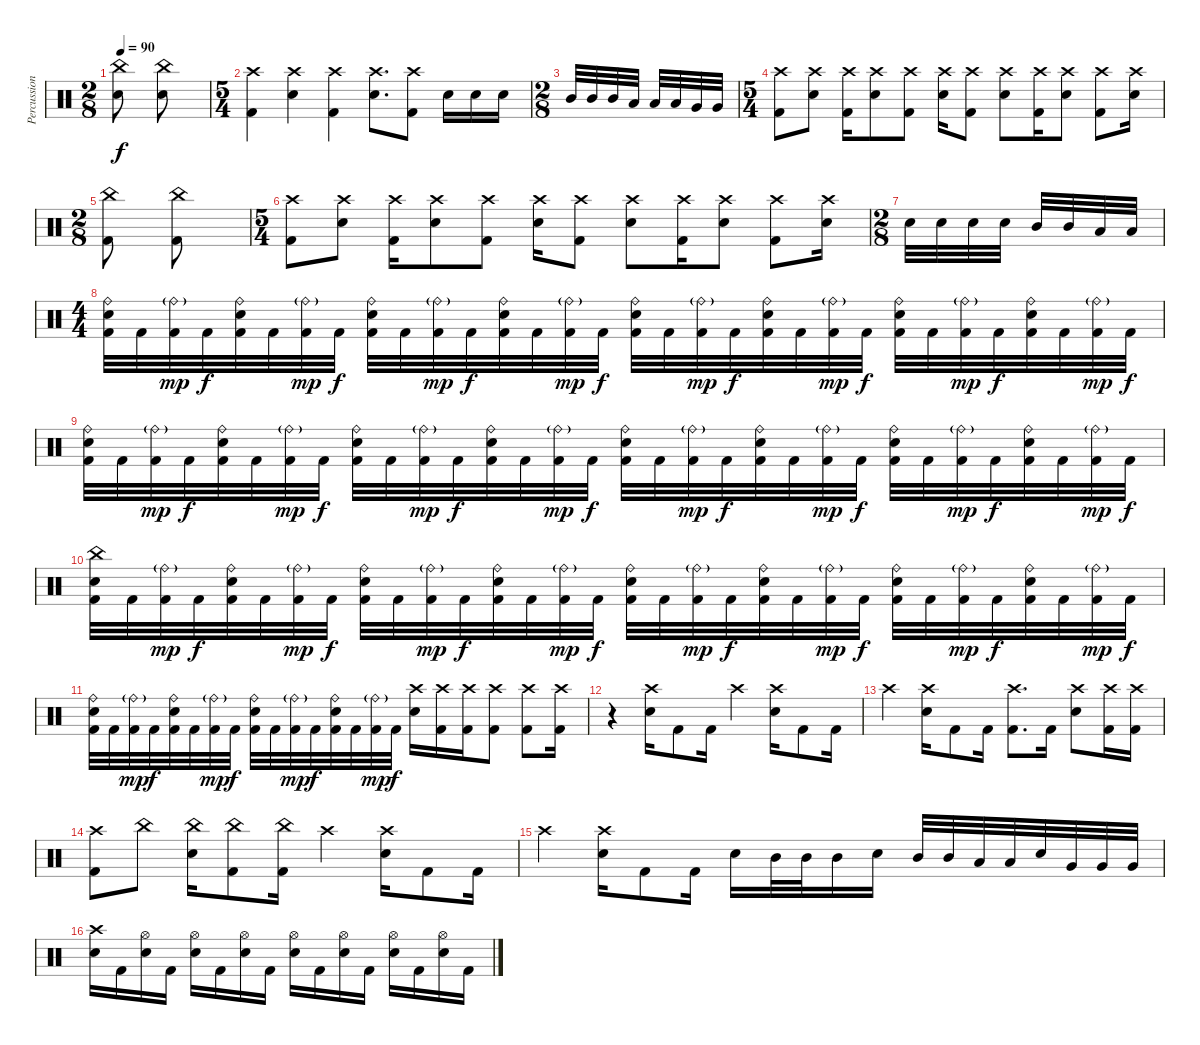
\track ("Percussion" "Percussion") {instrument percussion}
\staff {score}
\articulation defaults
\ts (2 8)
\tempo 90
\clef neutral
\ks c
("China (hit)" "Snare (hit) 2").8{dy f} ("China (hit)" "Snare (hit) 2").8 |
\ts (5 4)
("Crash high (hit)" "Kick (hit) 2").4 ("Crash high (hit)" "Snare (hit) 2").4 ("Crash high (hit)" "Kick (hit) 2").4 ("Crash high (hit)" "Snare (hit) 2").8{d} ("Crash high (hit)" "Kick (hit) 2").8 "Snare (hit) 2".16 "Snare (hit) 2".16 "Snare (hit) 2".16 |
\ts (2 8)
"Mid Tom (hit)".32 "Mid Tom (hit)".32 "Mid Tom (hit)".32 "Low Tom (hit)".32 "Low Tom (hit)".32 "Low Tom (hit)".32 "Very Low Tom (hit)".32 "Very Low Tom (hit)".32 |
\ts (5 4)
("Crash high (hit)" "Kick (hit) 2").8 ("Crash high (hit)" "Snare (hit) 2").8 ("Crash high (hit)" "Kick (hit) 2").16 ("Crash high (hit)" "Snare (hit) 2").8 ("Crash high (hit)" "Kick (hit) 2").8 ("Crash high (hit)" "Snare (hit) 2").16 ("Crash high (hit)" "Kick (hit) 2").8 ("Crash high (hit)" "Snare (hit) 2").8 ("Crash high (hit)" "Kick (hit) 2").16 ("Crash high (hit)" "Snare (hit) 2").8 ("Crash high (hit)" "Kick (hit) 2").8 ("Crash high (hit)" "Snare (hit) 2").16 |
\ts (2 8)
("China (hit)" "Kick (hit) 2").8 ("China (hit)" "Kick (hit) 2").8 |
\ts (5 4)
("Crash high (hit)" "Kick (hit) 2").8 ("Crash high (hit)" "Snare (hit) 2").8 ("Crash high (hit)" "Kick (hit) 2").16 ("Crash high (hit)" "Snare (hit) 2").8 ("Crash high (hit)" "Kick (hit) 2").8 ("Crash high (hit)" "Snare (hit) 2").16 ("Crash high (hit)" "Kick (hit) 2").8 ("Crash high (hit)" "Snare (hit) 2").8 ("Crash high (hit)" "Kick (hit) 2").16 ("Crash high (hit)" "Snare (hit) 2").8 ("Crash high (hit)" "Kick (hit) 2").8 ("Crash high (hit)" "Snare (hit) 2").16 |
\ts (2 8)
"Snare (hit) 2".32 "Snare (hit) 2".32 "Snare (hit) 2".32 "Snare (hit) 2".32 "Mid Tom (hit)".32 "Mid Tom (hit)".32 "Low Tom (hit)".32 "Low Tom (hit)".32 |
\ts (4 4)
("Ride (bell)" "Snare (hit) 2" "Kick (hit) 2").32 "Kick (hit) 2".32 ("Ride (bell)"{g} "Kick (hit) 2").32{dy mp} "Kick (hit) 2".32{dy f} ("Ride (bell)" "Snare (hit) 2" "Kick (hit) 2").32 "Kick (hit) 2".32 ("Ride (bell)"{g} "Kick (hit) 2").32{dy mp} "Kick (hit) 2".32{dy f} ("Ride (bell)" "Snare (hit) 2" "Kick (hit) 2").32 "Kick (hit) 2".32 ("Ride (bell)"{g} "Kick (hit) 2").32{dy mp} "Kick (hit) 2".32{dy f} ("Ride (bell)" "Snare (hit) 2" "Kick (hit) 2").32 "Kick (hit) 2".32 ("Ride (bell)"{g} "Kick (hit) 2").32{dy mp} "Kick (hit) 2".32{dy f} ("Ride (bell)" "Snare (hit) 2" "Kick (hit) 2").32 "Kick (hit) 2".32 ("Ride (bell)"{g} "Kick (hit) 2").32{dy mp} "Kick (hit) 2".32{dy f} ("Ride (bell)" "Snare (hit) 2" "Kick (hit) 2").32 "Kick (hit) 2".32 ("Ride (bell)"{g} "Kick (hit) 2").32{dy mp} "Kick (hit) 2".32{dy f} ("Ride (bell)" "Snare (hit) 2" "Kick (hit) 2").32 "Kick (hit) 2".32 ("Ride (bell)"{g} "Kick (hit) 2").32{dy mp} "Kick (hit) 2".32{dy f} ("Ride (bell)" "Snare (hit) 2" "Kick (hit) 2").32 "Kick (hit) 2".32 ("Ride (bell)"{g} "Kick (hit) 2").32{dy mp} "Kick (hit) 2".32{dy f} |
("Ride (bell)" "Snare (hit) 2" "Kick (hit) 2").32 "Kick (hit) 2".32 ("Ride (bell)"{g} "Kick (hit) 2").32{dy mp} "Kick (hit) 2".32{dy f} ("Ride (bell)" "Snare (hit) 2" "Kick (hit) 2").32 "Kick (hit) 2".32 ("Ride (bell)"{g} "Kick (hit) 2").32{dy mp} "Kick (hit) 2".32{dy f} ("Ride (bell)" "Snare (hit) 2" "Kick (hit) 2").32 "Kick (hit) 2".32 ("Ride (bell)"{g} "Kick (hit) 2").32{dy mp} "Kick (hit) 2".32{dy f} ("Ride (bell)" "Snare (hit) 2" "Kick (hit) 2").32 "Kick (hit) 2".32 ("Ride (bell)"{g} "Kick (hit) 2").32{dy mp} "Kick (hit) 2".32{dy f} ("Ride (bell)" "Snare (hit) 2" "Kick (hit) 2").32 "Kick (hit) 2".32 ("Ride (bell)"{g} "Kick (hit) 2").32{dy mp} "Kick (hit) 2".32{dy f} ("Ride (bell)" "Snare (hit) 2" "Kick (hit) 2").32 "Kick (hit) 2".32 ("Ride (bell)"{g} "Kick (hit) 2").32{dy mp} "Kick (hit) 2".32{dy f} ("Ride (bell)" "Snare (hit) 2" "Kick (hit) 2").32 "Kick (hit) 2".32 ("Ride (bell)"{g} "Kick (hit) 2").32{dy mp} "Kick (hit) 2".32{dy f} ("Ride (bell)" "Snare (hit) 2" "Kick (hit) 2").32 "Kick (hit) 2".32 ("Ride (bell)"{g} "Kick (hit) 2").32{dy mp} "Kick (hit) 2".32{dy f} |
("China (hit)" "Snare (hit) 2" "Kick (hit) 2").32 "Kick (hit) 2".32 ("Ride (bell)"{g} "Kick (hit) 2").32{dy mp} "Kick (hit) 2".32{dy f} ("Ride (bell)" "Snare (hit) 2" "Kick (hit) 2").32 "Kick (hit) 2".32 ("Ride (bell)"{g} "Kick (hit) 2").32{dy mp} "Kick (hit) 2".32{dy f} ("Ride (bell)" "Snare (hit) 2" "Kick (hit) 2").32 "Kick (hit) 2".32 ("Ride (bell)"{g} "Kick (hit) 2").32{dy mp} "Kick (hit) 2".32{dy f} ("Ride (bell)" "Snare (hit) 2" "Kick (hit) 2").32 "Kick (hit) 2".32 ("Ride (bell)"{g} "Kick (hit) 2").32{dy mp} "Kick (hit) 2".32{dy f} ("Ride (bell)" "Snare (hit) 2" "Kick (hit) 2").32 "Kick (hit) 2".32 ("Ride (bell)"{g} "Kick (hit) 2").32{dy mp} "Kick (hit) 2".32{dy f} ("Ride (bell)" "Snare (hit) 2" "Kick (hit) 2").32 "Kick (hit) 2".32 ("Ride (bell)"{g} "Kick (hit) 2").32{dy mp} "Kick (hit) 2".32{dy f} ("Ride (bell)" "Snare (hit) 2" "Kick (hit) 2").32 "Kick (hit) 2".32 ("Ride (bell)"{g} "Kick (hit) 2").32{dy mp} "Kick (hit) 2".32{dy f} ("Ride (bell)" "Snare (hit) 2" "Kick (hit) 2").32 "Kick (hit) 2".32 ("Ride (bell)"{g} "Kick (hit) 2").32{dy mp} "Kick (hit) 2".32{dy f} |
("Ride (bell)" "Snare (hit) 2" "Kick (hit) 2").32 "Kick (hit) 2".32 ("Ride (bell)"{g} "Kick (hit) 2").32{dy mp} "Kick (hit) 2".32{dy f} ("Ride (bell)" "Snare (hit) 2" "Kick (hit) 2").32 "Kick (hit) 2".32 ("Ride (bell)"{g} "Kick (hit) 2").32{dy mp} "Kick (hit) 2".32{dy f} ("Ride (bell)" "Snare (hit) 2" "Kick (hit) 2").32 "Kick (hit) 2".32 ("Ride (bell)"{g} "Kick (hit) 2").32{dy mp} "Kick (hit) 2".32{dy f} ("Ride (bell)" "Snare (hit) 2" "Kick (hit) 2").32 "Kick (hit) 2".32 ("Ride (bell)"{g} "Kick (hit) 2").32{dy mp} "Kick (hit) 2".32{dy f} ("Crash high (hit)" "Snare (hit) 2").16 ("Crash high (hit)" "Kick (hit) 2").16 ("Crash high (hit)" "Kick (hit) 2").16 ("Crash high (hit)" "Kick (hit) 2").8 ("Crash high (hit)" "Kick (hit) 2").8 ("Crash high (hit)" "Kick (hit) 2").16 |
r.4 ("Crash high (hit)" "Snare (hit) 2").16 "Kick (hit) 2".8 "Kick (hit) 2".16 "Crash high (hit)".4 ("Crash high (hit)" "Snare (hit) 2").16 "Kick (hit) 2".8 "Kick (hit) 2".16 |
"Crash high (hit)".4 ("Crash high (hit)" "Snare (hit) 2").16 "Kick (hit) 2".8 "Kick (hit) 2".16 ("Crash high (hit)" "Kick (hit) 2").8{d} "Kick (hit) 2".16 ("Crash high (hit)" "Snare (hit) 2").8 ("Crash high (hit)" "Kick (hit) 2").16 ("Crash high (hit)" "Kick (hit) 2").16 |
("Crash high (hit)" "Kick (hit) 2").8 "China (hit)".8 ("China (hit)" "Snare (hit) 2").16 ("China (hit)" "Kick (hit) 2").8 ("China (hit)" "Kick (hit) 2").16 "Crash high (hit)".4 ("Crash high (hit)" "Snare (hit) 2").16 "Kick (hit) 2".8 "Kick (hit) 2".16 |
"Crash high (hit)".4 ("Crash high (hit)" "Snare (hit) 2").16 "Kick (hit) 2".8 "Kick (hit) 2".16 "Snare (hit) 2".16 "Mid Tom (hit)".32 "Mid Tom (hit)".32 "Mid Tom (hit)".16 "Snare (hit) 2".16 "Mid Tom (hit)".32 "Mid Tom (hit)".32 "Low Tom (hit)".32 "Low Tom (hit)".32 "Snare (hit) 2".32 "Very Low Tom (hit)".32 "Very Low Tom (hit)".32 "Very Low Tom (hit)".32 |
("Crash high (hit)" "Snare (hit) 2").16 "Kick (hit) 2".16 ("Hi-Hat (open)" "Snare (hit) 2").16 "Kick (hit) 2".16 ("Hi-Hat (open)" "Snare (hit) 2").16 "Kick (hit) 2".16 ("Hi-Hat (open)" "Snare (hit) 2").16 "Kick (hit) 2".16 ("Hi-Hat (open)" "Snare (hit) 2").16 "Kick (hit) 2".16 ("Hi-Hat (open)" "Snare (hit) 2").16 "Kick (hit) 2".16 ("Hi-Hat (open)" "Snare (hit) 2").16 "Kick (hit) 2".16 ("Hi-Hat (open)" "Snare (hit) 2").16 "Kick (hit) 2".16
